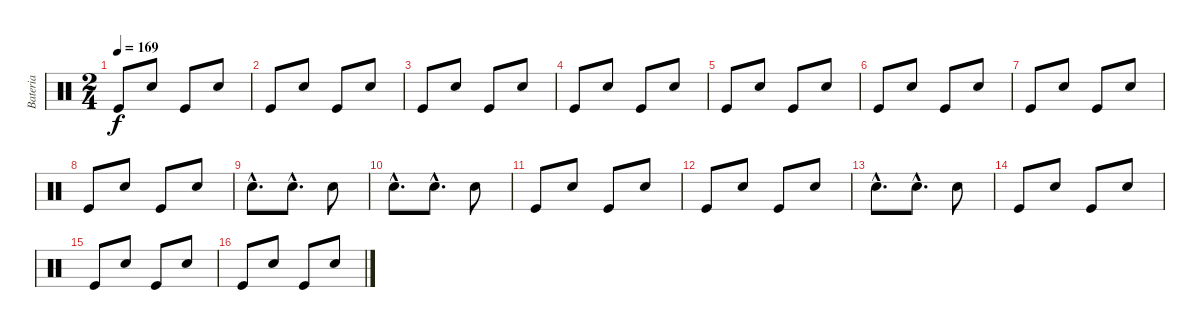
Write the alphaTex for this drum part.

\track ("Bateria" "Bateria") {instrument percussion}
\staff {score}
\articulation defaults
\ts (2 4)
\tempo 169
\clef neutral
\ks c "Kick (hit)".8{dy f} "Snare (hit) 2".8 "Kick (hit)".8 "Snare (hit) 2".8
|
"Kick (hit)".8 "Snare (hit) 2".8 "Kick (hit)".8 "Snare (hit) 2".8 |
"Kick (hit)".8 "Snare (hit) 2".8 "Kick (hit)".8 "Snare (hit) 2".8 |
"Kick (hit)".8 "Snare (hit) 2".8 "Kick (hit)".8 "Snare (hit) 2".8 |
"Kick (hit)".8 "Snare (hit) 2".8 "Kick (hit)".8 "Snare (hit) 2".8 |
"Kick (hit)".8 "Snare (hit) 2".8 "Kick (hit)".8 "Snare (hit) 2".8 |
"Kick (hit)".8 "Snare (hit) 2".8 "Kick (hit)".8 "Snare (hit) 2".8 |
"Kick (hit)".8 "Snare (hit) 2".8 "Kick (hit)".8 "Snare (hit) 2".8 |
"Snare (hit) 2"{hac}.8{d} "Snare (hit) 2"{hac}.8{d} "Snare (hit) 2".8 |
"Snare (hit) 2"{hac}.8{d} "Snare (hit) 2"{hac}.8{d} "Snare (hit) 2".8 |
"Kick (hit)".8 "Snare (hit) 2".8 "Kick (hit)".8 "Snare (hit) 2".8 |
"Kick (hit)".8 "Snare (hit) 2".8 "Kick (hit)".8 "Snare (hit) 2".8 |
"Snare (hit) 2"{hac}.8{d} "Snare (hit) 2"{hac}.8{d} "Snare (hit) 2".8 |
"Kick (hit)".8 "Snare (hit) 2".8 "Kick (hit)".8 "Snare (hit) 2".8 |
"Kick (hit)".8 "Snare (hit) 2".8 "Kick (hit)".8 "Snare (hit) 2".8 |
"Kick (hit)".8 "Snare (hit) 2".8 "Kick (hit)".8 "Snare (hit) 2".8
